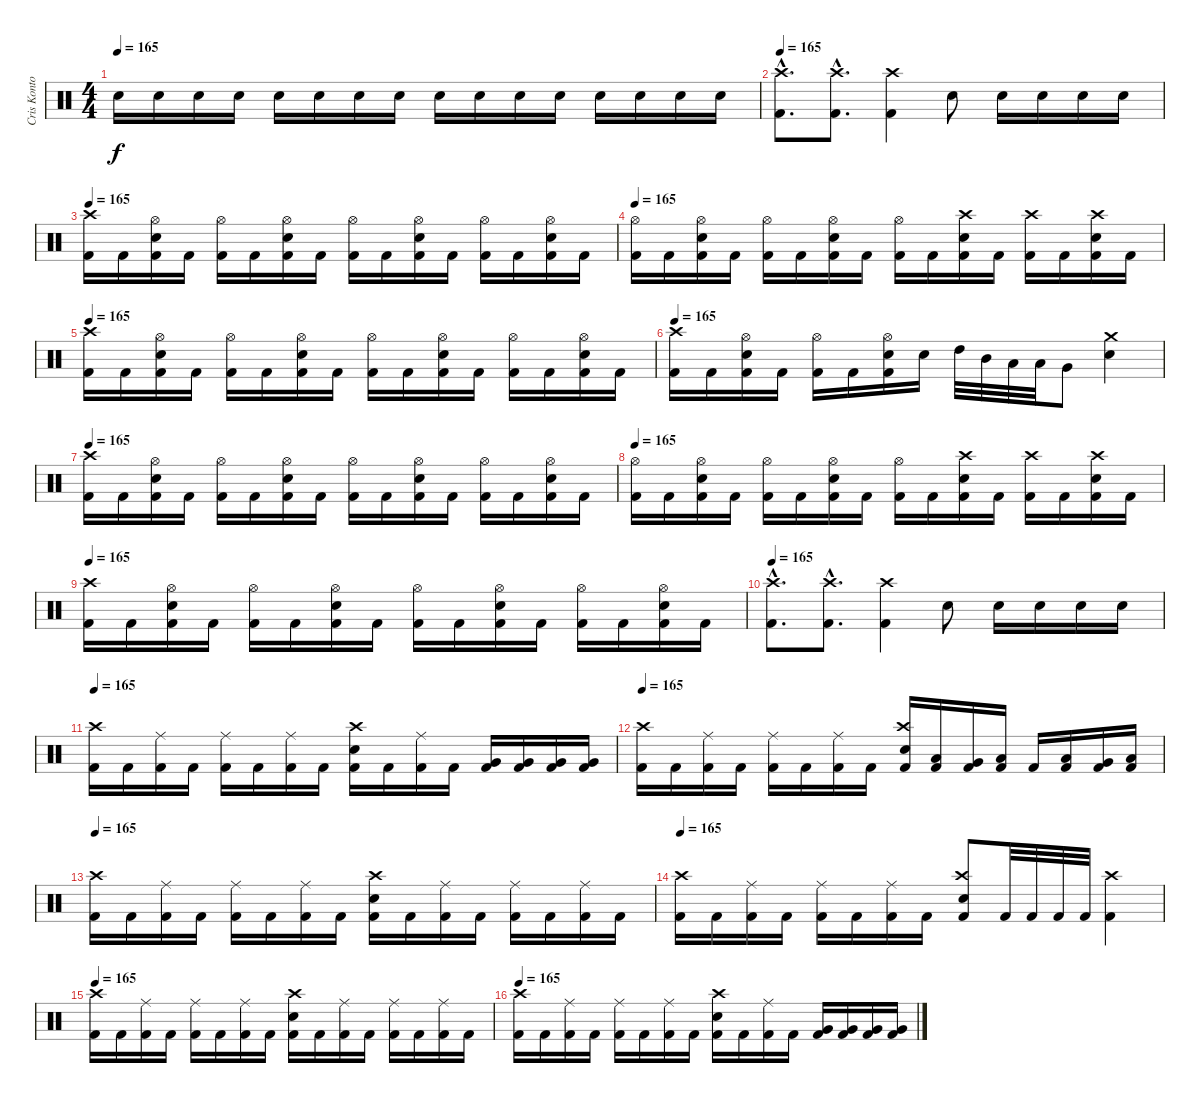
\track ("Cris Kontos" "Cris Konto") {instrument percussion}
\staff {score}
\articulation defaults
\ts (4 4)
\tempo 165
\clef neutral
\ks c "Electric Snare (hit)".16{dy f} "Electric Snare (hit)".16 "Electric Snare (hit)".16 "Electric Snare (hit)".16 "Electric Snare (hit)".16 "Electric Snare (hit)".16 "Electric Snare (hit)".16 "Electric Snare (hit)".16 "Electric Snare (hit)".16 "Electric Snare (hit)".16 "Electric Snare (hit)".16 "Electric Snare (hit)".16 "Electric Snare (hit)".16 "Electric Snare (hit)".16 "Electric Snare (hit)".16 "Electric Snare (hit)".16
|
\tempo 165
("Crash high (hit)"{hac} "Kick (hit) 2"{hac}).8{d} ("Crash high (hit)"{hac} "Kick (hit) 2"{hac}).8{d} ("Crash high (hit)" "Kick (hit) 2").4 "Electric Snare (hit)".8 "Electric Snare (hit)".16 "Electric Snare (hit)".16 "Electric Snare (hit)".16 "Electric Snare (hit)".16 |
\tempo 165
("Crash high (hit)" "Kick (hit) 2").16 "Kick (hit) 2".16 ("Hi-Hat (open)" "Electric Snare (hit)" "Kick (hit) 2").16 "Kick (hit) 2".16 ("Hi-Hat (open)" "Kick (hit) 2").16 "Kick (hit) 2".16 ("Hi-Hat (open)" "Electric Snare (hit)" "Kick (hit) 2").16 "Kick (hit) 2".16 ("Hi-Hat (open)" "Kick (hit) 2").16 "Kick (hit) 2".16 ("Hi-Hat (open)" "Electric Snare (hit)" "Kick (hit) 2").16 "Kick (hit) 2".16 ("Hi-Hat (open)" "Kick (hit) 2").16 "Kick (hit) 2".16 ("Hi-Hat (open)" "Electric Snare (hit)" "Kick (hit) 2").16 "Kick (hit) 2".16 |
\tempo 165
("Hi-Hat (open)" "Kick (hit) 2").16 "Kick (hit) 2".16 ("Hi-Hat (open)" "Electric Snare (hit)" "Kick (hit) 2").16 "Kick (hit) 2".16 ("Hi-Hat (open)" "Kick (hit) 2").16 "Kick (hit) 2".16 ("Hi-Hat (open)" "Electric Snare (hit)" "Kick (hit) 2").16 "Kick (hit) 2".16 ("Hi-Hat (open)" "Kick (hit) 2").16 "Kick (hit) 2".16 ("Crash high (hit)" "Electric Snare (hit)" "Kick (hit) 2").16 "Kick (hit) 2".16 ("Crash high (hit)" "Kick (hit) 2").16 "Kick (hit) 2".16 ("Crash high (hit)" "Electric Snare (hit)" "Kick (hit) 2").16 "Kick (hit) 2".16 |
\tempo 165
("Crash high (hit)" "Kick (hit) 2").16 "Kick (hit) 2".16 ("Hi-Hat (open)" "Electric Snare (hit)" "Kick (hit) 2").16 "Kick (hit) 2".16 ("Hi-Hat (open)" "Kick (hit) 2").16 "Kick (hit) 2".16 ("Hi-Hat (open)" "Electric Snare (hit)" "Kick (hit) 2").16 "Kick (hit) 2".16 ("Hi-Hat (open)" "Kick (hit) 2").16 "Kick (hit) 2".16 ("Hi-Hat (open)" "Electric Snare (hit)" "Kick (hit) 2").16 "Kick (hit) 2".16 ("Hi-Hat (open)" "Kick (hit) 2").16 "Kick (hit) 2".16 ("Hi-Hat (open)" "Electric Snare (hit)" "Kick (hit) 2").16 "Kick (hit) 2".16 |
\tempo 165
("Crash high (hit)" "Kick (hit) 2").16 "Kick (hit) 2".16 ("Hi-Hat (open)" "Electric Snare (hit)" "Kick (hit) 2").16 "Kick (hit) 2".16 ("Hi-Hat (open)" "Kick (hit) 2").16 "Kick (hit) 2".16 ("Hi-Hat (open)" "Electric Snare (hit)" "Kick (hit) 2").16 "Electric Snare (hit)".16 "High Tom (hit)".32 "Mid Tom (hit)".32 "Low Tom (hit)".32 "Low Tom (hit)".32 "Very Low Tom (hit)".8 ("Crash medium (hit)" "Electric Snare (hit)").4 |
\tempo 165
("Crash high (hit)" "Kick (hit) 2").16 "Kick (hit) 2".16 ("Hi-Hat (open)" "Electric Snare (hit)" "Kick (hit) 2").16 "Kick (hit) 2".16 ("Hi-Hat (open)" "Kick (hit) 2").16 "Kick (hit) 2".16 ("Hi-Hat (open)" "Electric Snare (hit)" "Kick (hit) 2").16 "Kick (hit) 2".16 ("Hi-Hat (open)" "Kick (hit) 2").16 "Kick (hit) 2".16 ("Hi-Hat (open)" "Electric Snare (hit)" "Kick (hit) 2").16 "Kick (hit) 2".16 ("Hi-Hat (open)" "Kick (hit) 2").16 "Kick (hit) 2".16 ("Hi-Hat (open)" "Electric Snare (hit)" "Kick (hit) 2").16 "Kick (hit) 2".16 |
\tempo 165
("Hi-Hat (open)" "Kick (hit) 2").16 "Kick (hit) 2".16 ("Hi-Hat (open)" "Electric Snare (hit)" "Kick (hit) 2").16 "Kick (hit) 2".16 ("Hi-Hat (open)" "Kick (hit) 2").16 "Kick (hit) 2".16 ("Hi-Hat (open)" "Electric Snare (hit)" "Kick (hit) 2").16 "Kick (hit) 2".16 ("Hi-Hat (open)" "Kick (hit) 2").16 "Kick (hit) 2".16 ("Crash high (hit)" "Electric Snare (hit)" "Kick (hit) 2").16 "Kick (hit) 2".16 ("Crash high (hit)" "Kick (hit) 2").16 "Kick (hit) 2".16 ("Crash high (hit)" "Electric Snare (hit)" "Kick (hit) 2").16 "Kick (hit) 2".16 |
\tempo 165
("Crash high (hit)" "Kick (hit) 2").16 "Kick (hit) 2".16 ("Hi-Hat (open)" "Electric Snare (hit)" "Kick (hit) 2").16 "Kick (hit) 2".16 ("Hi-Hat (open)" "Kick (hit) 2").16 "Kick (hit) 2".16 ("Hi-Hat (open)" "Electric Snare (hit)" "Kick (hit) 2").16 "Kick (hit) 2".16 ("Hi-Hat (open)" "Kick (hit) 2").16 "Kick (hit) 2".16 ("Hi-Hat (open)" "Electric Snare (hit)" "Kick (hit) 2").16 "Kick (hit) 2".16 ("Hi-Hat (open)" "Kick (hit) 2").16 "Kick (hit) 2".16 ("Hi-Hat (open)" "Electric Snare (hit)" "Kick (hit) 2").16 "Kick (hit) 2".16 |
\tempo 165
("Crash high (hit)"{hac} "Kick (hit) 2"{hac}).8{d} ("Crash high (hit)"{hac} "Kick (hit) 2"{hac}).8{d} ("Crash high (hit)" "Kick (hit) 2").4 "Electric Snare (hit)".8 "Electric Snare (hit)".16 "Electric Snare (hit)".16 "Electric Snare (hit)".16 "Electric Snare (hit)".16 |
\tempo 165
("Crash high (hit)" "Kick (hit) 2").16 "Kick (hit) 2".16 ("Ride (middle)" "Kick (hit) 2").16 "Kick (hit) 2".16 ("Ride (middle)" "Kick (hit) 2").16 "Kick (hit) 2".16 ("Ride (middle)" "Kick (hit) 2").16 "Kick (hit) 2".16 ("Crash high (hit)" "Electric Snare (hit)" "Kick (hit) 2").16 "Kick (hit) 2".16 ("Ride (middle)" "Kick (hit) 2").16 "Kick (hit) 2".16 ("Very Low Tom (hit)" "Kick (hit) 2").16 ("Very Low Tom (hit)" "Kick (hit) 2").16 ("Very Low Tom (hit)" "Kick (hit) 2").16 ("Very Low Tom (hit)" "Kick (hit) 2").16 |
\tempo 165
("Crash high (hit)" "Kick (hit) 2").16 "Kick (hit) 2".16 ("Ride (middle)" "Kick (hit) 2").16 "Kick (hit) 2".16 ("Ride (middle)" "Kick (hit) 2").16 "Kick (hit) 2".16 ("Ride (middle)" "Kick (hit) 2").16 "Kick (hit) 2".16 ("Crash high (hit)" "Electric Snare (hit)" "Kick (hit) 2").16 ("Low Tom (hit)" "Kick (hit) 2").16 ("Very Low Tom (hit)" "Kick (hit) 2").16 ("Low Floor Tom (hit)" "Kick (hit) 2").16 "Kick (hit) 2".16 ("Low Tom (hit)" "Kick (hit) 2").16 ("Very Low Tom (hit)" "Kick (hit) 2").16 ("Low Floor Tom (hit)" "Kick (hit) 2").16 |
\tempo 165
("Crash high (hit)" "Kick (hit) 2").16 "Kick (hit) 2".16 ("Ride (middle)" "Kick (hit) 2").16 "Kick (hit) 2".16 ("Ride (middle)" "Kick (hit) 2").16 "Kick (hit) 2".16 ("Ride (middle)" "Kick (hit) 2").16 "Kick (hit) 2".16 ("Crash high (hit)" "Electric Snare (hit)" "Kick (hit) 2").16 "Kick (hit) 2".16 ("Ride (middle)" "Kick (hit) 2").16 "Kick (hit) 2".16 ("Ride (middle)" "Kick (hit) 2").16 "Kick (hit) 2".16 ("Ride (middle)" "Kick (hit) 2").16 "Kick (hit) 2".16 |
\tempo 165
("Crash high (hit)" "Kick (hit) 2").16 "Kick (hit) 2".16 ("Ride (middle)" "Kick (hit) 2").16 "Kick (hit) 2".16 ("Ride (middle)" "Kick (hit) 2").16 "Kick (hit) 2".16 ("Ride (middle)" "Kick (hit) 2").16 "Kick (hit) 2".16 ("Crash high (hit)" "Electric Snare (hit)" "Kick (hit) 2").8 "Kick (hit) 2".32 "Kick (hit) 2".32 "Kick (hit) 2".32 "Kick (hit) 2".32 ("Crash high (hit)" "Kick (hit) 2").4 |
\tempo 165
("Crash high (hit)" "Kick (hit) 2").16 "Kick (hit) 2".16 ("Ride (middle)" "Kick (hit) 2").16 "Kick (hit) 2".16 ("Ride (middle)" "Kick (hit) 2").16 "Kick (hit) 2".16 ("Ride (middle)" "Kick (hit) 2").16 "Kick (hit) 2".16 ("Crash high (hit)" "Electric Snare (hit)" "Kick (hit) 2").16 "Kick (hit) 2".16 ("Ride (middle)" "Kick (hit) 2").16 "Kick (hit) 2".16 ("Ride (middle)" "Kick (hit) 2").16 "Kick (hit) 2".16 ("Ride (middle)" "Kick (hit) 2").16 "Kick (hit) 2".16 |
\tempo 165
("Crash high (hit)" "Kick (hit) 2").16 "Kick (hit) 2".16 ("Ride (middle)" "Kick (hit) 2").16 "Kick (hit) 2".16 ("Ride (middle)" "Kick (hit) 2").16 "Kick (hit) 2".16 ("Ride (middle)" "Kick (hit) 2").16 "Kick (hit) 2".16 ("Crash high (hit)" "Electric Snare (hit)" "Kick (hit) 2").16 "Kick (hit) 2".16 ("Ride (middle)" "Kick (hit) 2").16 "Kick (hit) 2".16 ("Very Low Tom (hit)" "Kick (hit) 2").16 ("Very Low Tom (hit)" "Kick (hit) 2").16 ("Very Low Tom (hit)" "Kick (hit) 2").16 ("Very Low Tom (hit)" "Kick (hit) 2").16
